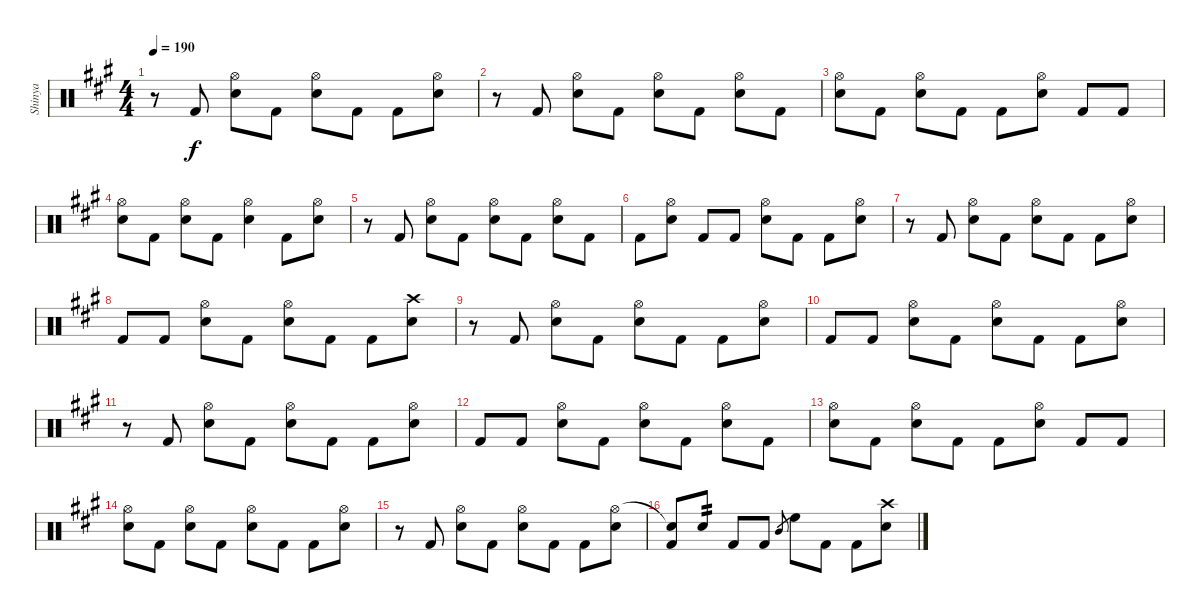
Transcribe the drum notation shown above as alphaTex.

\track ("Shinya" "Shinya") {instrument percussion}
\staff {score}
\articulation defaults
\ts (4 4)
\tempo 190
\clef neutral
\ks a
r.8{dy f} "Kick (hit) 2".8 ("Hi-Hat (open)" "Snare (hit) 2").8 "Kick (hit) 2".8 ("Hi-Hat (open)" "Snare (hit) 2").8 "Kick (hit) 2".8 "Kick (hit) 2".8 ("Hi-Hat (open)" "Snare (hit) 2").8 |
r.8 "Kick (hit) 2".8 ("Hi-Hat (open)" "Snare (hit) 2").8 "Kick (hit) 2".8 ("Hi-Hat (open)" "Snare (hit) 2").8 "Kick (hit) 2".8 ("Hi-Hat (open)" "Snare (hit) 2").8 "Kick (hit) 2".8 |
("Hi-Hat (open)" "Snare (hit) 2").8 "Kick (hit) 2".8 ("Hi-Hat (open)" "Snare (hit) 2").8 "Kick (hit) 2".8 "Kick (hit) 2".8 ("Hi-Hat (open)" "Snare (hit) 2").8 "Kick (hit) 2".8 "Kick (hit) 2".8 |
("Hi-Hat (open)" "Snare (hit) 2").8 "Kick (hit) 2".8 ("Hi-Hat (open)" "Snare (hit) 2").8 "Kick (hit) 2".8 ("Hi-Hat (open)" "Snare (hit) 2").4 "Kick (hit) 2".8 ("Hi-Hat (open)" "Snare (hit) 2").8 |
r.8 "Kick (hit) 2".8 ("Hi-Hat (open)" "Snare (hit) 2").8 "Kick (hit) 2".8 ("Hi-Hat (open)" "Snare (hit) 2").8 "Kick (hit) 2".8 ("Hi-Hat (open)" "Snare (hit) 2").8 "Kick (hit) 2".8 |
"Kick (hit) 2".8 ("Hi-Hat (open)" "Snare (hit) 2").8 "Kick (hit) 2".8 "Kick (hit) 2".8 ("Hi-Hat (open)" "Snare (hit) 2").8 "Kick (hit) 2".8 "Kick (hit) 2".8 ("Hi-Hat (open)" "Snare (hit) 2").8 |
r.8 "Kick (hit) 2".8 ("Hi-Hat (open)" "Snare (hit) 2").8 "Kick (hit) 2".8 ("Hi-Hat (open)" "Snare (hit) 2").8 "Kick (hit) 2".8 "Kick (hit) 2".8 ("Hi-Hat (open)" "Snare (hit) 2").8 |
"Kick (hit) 2".8 "Kick (hit) 2".8 ("Hi-Hat (open)" "Snare (hit) 2").8 "Kick (hit) 2".8 ("Hi-Hat (open)" "Snare (hit) 2").8 "Kick (hit) 2".8 "Kick (hit) 2".8 ("Crash high (hit)" "Snare (hit) 2").8 |
r.8 "Kick (hit) 2".8 ("Hi-Hat (open)" "Snare (hit) 2").8 "Kick (hit) 2".8 ("Hi-Hat (open)" "Snare (hit) 2").8 "Kick (hit) 2".8 "Kick (hit) 2".8 ("Hi-Hat (open)" "Snare (hit) 2").8 |
"Kick (hit) 2".8 "Kick (hit) 2".8 ("Hi-Hat (open)" "Snare (hit) 2").8 "Kick (hit) 2".8 ("Hi-Hat (open)" "Snare (hit) 2").8 "Kick (hit) 2".8 "Kick (hit) 2".8 ("Hi-Hat (open)" "Snare (hit) 2").8 |
r.8 "Kick (hit) 2".8 ("Hi-Hat (open)" "Snare (hit) 2").8 "Kick (hit) 2".8 ("Hi-Hat (open)" "Snare (hit) 2").8 "Kick (hit) 2".8 "Kick (hit) 2".8 ("Hi-Hat (open)" "Snare (hit) 2").8 |
"Kick (hit) 2".8 "Kick (hit) 2".8 ("Hi-Hat (open)" "Snare (hit) 2").8 "Kick (hit) 2".8 ("Hi-Hat (open)" "Snare (hit) 2").8 "Kick (hit) 2".8 ("Hi-Hat (open)" "Snare (hit) 2").8 "Kick (hit) 2".8 |
("Hi-Hat (open)" "Snare (hit) 2").8 "Kick (hit) 2".8 ("Hi-Hat (open)" "Snare (hit) 2").8 "Kick (hit) 2".8 "Kick (hit) 2".8 ("Hi-Hat (open)" "Snare (hit) 2").8 "Kick (hit) 2".8 "Kick (hit) 2".8 |
("Hi-Hat (open)" "Snare (hit) 2").8 "Kick (hit) 2".8 ("Hi-Hat (open)" "Snare (hit) 2").8 "Kick (hit) 2".8 ("Hi-Hat (open)" "Snare (hit) 2").8 "Kick (hit) 2".8 "Kick (hit) 2".8 ("Hi-Hat (open)" "Snare (hit) 2").8 |
r.8 "Kick (hit) 2".8 ("Hi-Hat (open)" "Snare (hit) 2").8 "Kick (hit) 2".8 ("Hi-Hat (open)" "Snare (hit) 2").8 "Kick (hit) 2".8 "Kick (hit) 2".8 ("Hi-Hat (open)" "Snare (hit) 2").8 |
("Snare (hit)"{t} "Kick (hit) 2").8 "Snare (hit) 2".8{tp 2} "Kick (hit) 2".8 "Kick (hit) 2".8 "Mid Tom (hit)".8{gr} "High Floor Tom (hit)".8 "Kick (hit) 2".8 "Kick (hit) 2".8 ("Crash high (hit)" "Snare (hit) 2").8
